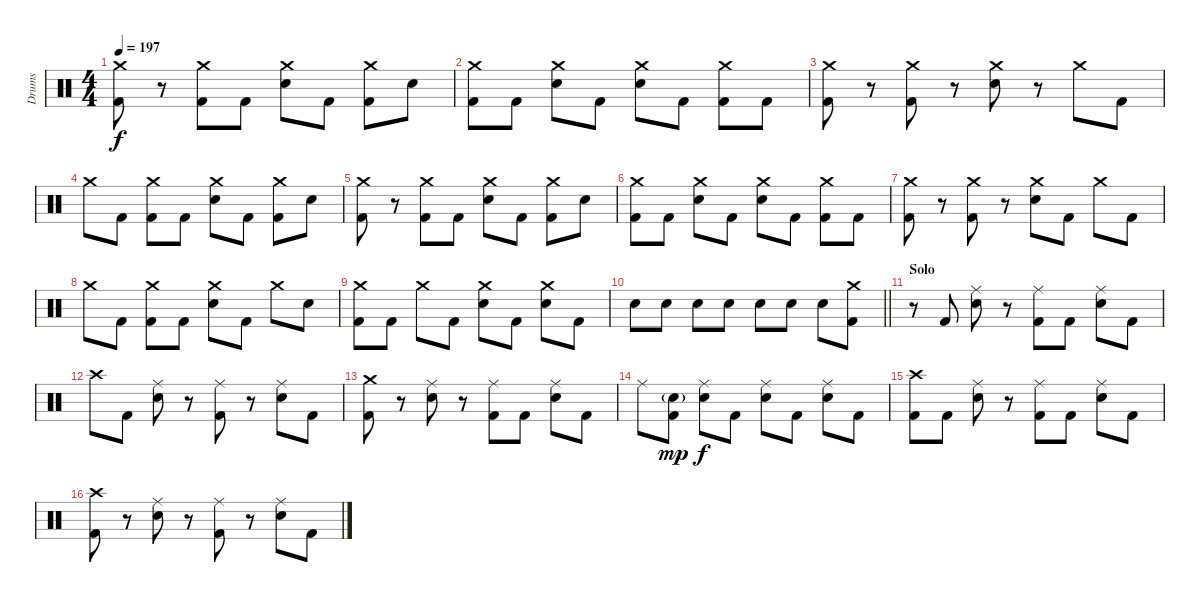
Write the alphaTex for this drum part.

\track ("Drums" "Drums") {instrument percussion}
\staff {score}
\articulation defaults
\ts (4 4)
\tempo 197
\clef neutral
\ks c
("Crash medium (hit)" "Kick (hit) 2").8{dy f} r.8 ("Crash medium (hit)" "Kick (hit) 2").8 "Kick (hit) 2".8 ("Crash medium (hit)" "Electric Snare (hit)").8 "Kick (hit) 2".8 ("Crash medium (hit)" "Kick (hit) 2").8 "Electric Snare (hit)".8 |
("Crash medium (hit)" "Kick (hit) 2").8 "Kick (hit) 2".8 ("Crash medium (hit)" "Electric Snare (hit)").8 "Kick (hit) 2".8 ("Crash medium (hit)" "Electric Snare (hit)").8 "Kick (hit) 2".8 ("Crash medium (hit)" "Kick (hit) 2").8 "Kick (hit) 2".8 |
("Crash medium (hit)" "Kick (hit) 2").8 r.8 ("Crash medium (hit)" "Kick (hit) 2").8 r.8 ("Crash medium (hit)" "Electric Snare (hit)").8 r.8 "Crash medium (hit)".8 "Kick (hit) 2".8 |
"Crash medium (hit)".8 "Kick (hit) 2".8 ("Crash medium (hit)" "Kick (hit) 2").8 "Kick (hit) 2".8 ("Crash medium (hit)" "Electric Snare (hit)").8 "Kick (hit) 2".8 ("Crash medium (hit)" "Kick (hit) 2").8 "Electric Snare (hit)".8 |
("Crash medium (hit)" "Kick (hit) 2").8 r.8 ("Crash medium (hit)" "Kick (hit) 2").8 "Kick (hit) 2".8 ("Crash medium (hit)" "Electric Snare (hit)").8 "Kick (hit) 2".8 ("Crash medium (hit)" "Kick (hit) 2").8 "Electric Snare (hit)".8 |
("Crash medium (hit)" "Kick (hit) 2").8 "Kick (hit) 2".8 ("Crash medium (hit)" "Electric Snare (hit)").8 "Kick (hit) 2".8 ("Crash medium (hit)" "Electric Snare (hit)").8 "Kick (hit) 2".8 ("Crash medium (hit)" "Kick (hit) 2").8 "Kick (hit) 2".8 |
("Crash medium (hit)" "Kick (hit) 2").8 r.8 ("Crash medium (hit)" "Kick (hit) 2").8 r.8 ("Crash medium (hit)" "Electric Snare (hit)").8 "Kick (hit) 2".8 "Crash medium (hit)".8 "Kick (hit) 2".8 |
"Crash medium (hit)".8 "Kick (hit) 2".8 ("Crash medium (hit)" "Kick (hit) 2").8 "Kick (hit) 2".8 ("Crash medium (hit)" "Electric Snare (hit)").8 "Kick (hit) 2".8 "Crash medium (hit)".8 "Electric Snare (hit)".8 |
("Crash medium (hit)" "Kick (hit) 2").8 "Kick (hit) 2".8 "Crash medium (hit)".8 "Kick (hit) 2".8 ("Crash medium (hit)" "Electric Snare (hit)").8 "Kick (hit) 2".8 ("Crash medium (hit)" "Electric Snare (hit)").8 "Kick (hit) 2".8 |
\barLineRight lightlight "Electric Snare (hit)".8 "Electric Snare (hit)".8 "Electric Snare (hit)".8 "Electric Snare (hit)".8 "Electric Snare (hit)".8 "Electric Snare (hit)".8 "Electric Snare (hit)".8
("Crash medium (hit)" "Kick (hit) 2").8 |
\section ("" "Solo")
r.8 "Kick (hit) 2".8 ("Ride (middle)" "Electric Snare (hit)").8 r.8 ("Ride (middle)" "Kick (hit) 2").8 "Kick (hit) 2".8 ("Ride (middle)" "Electric Snare (hit)").8 "Kick (hit) 2".8 |
"Crash high (hit)".8 "Kick (hit) 2".8 ("Ride (middle)" "Electric Snare (hit)").8 r.8 ("Ride (middle)" "Kick (hit) 2").8 r.8 ("Ride (middle)" "Electric Snare (hit)").8 "Kick (hit) 2".8 |
("Crash medium (hit)" "Kick (hit) 2").8 r.8 ("Ride (middle)" "Electric Snare (hit)").8 r.8 ("Ride (middle)" "Kick (hit) 2").8 "Kick (hit) 2".8 ("Ride (middle)" "Electric Snare (hit)").8 "Kick (hit) 2".8 |
"Ride (middle)".8 ("Electric Snare (hit)"{g} "Kick (hit) 2").8{dy mp} ("Ride (middle)" "Electric Snare (hit)").8{dy f} "Kick (hit) 2".8 ("Ride (middle)" "Electric Snare (hit)").8 "Kick (hit) 2".8 ("Ride (middle)" "Electric Snare (hit)").8 "Kick (hit) 2".8 |
("Crash high (hit)" "Kick (hit) 2").8 "Kick (hit) 2".8 ("Ride (middle)" "Electric Snare (hit)").8 r.8 ("Ride (middle)" "Kick (hit) 2").8 "Kick (hit) 2".8 ("Ride (middle)" "Electric Snare (hit)").8 "Kick (hit) 2".8 |
("Crash high (hit)" "Kick (hit) 2").8 r.8 ("Ride (middle)" "Electric Snare (hit)").8 r.8 ("Ride (middle)" "Kick (hit) 2").8 r.8 ("Ride (middle)" "Electric Snare (hit)").8 "Kick (hit) 2".8
